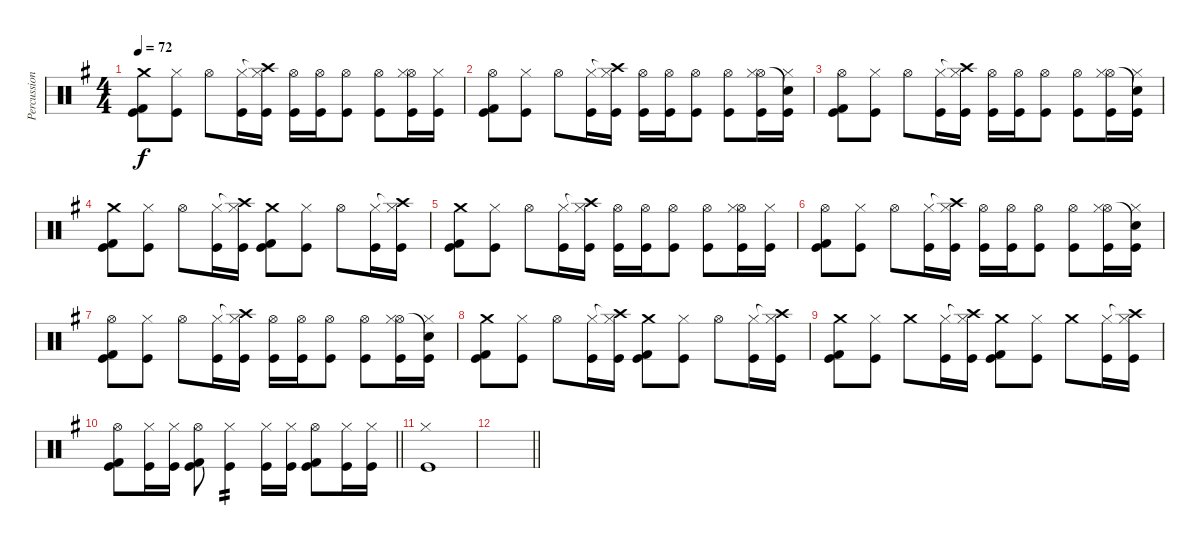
\track ("Percussion" "Percussion") {instrument percussion}
\staff {score}
\articulation defaults
\ts (4 4)
\tempo 72
\clef neutral
\ks g
("Crash medium (hit)" "Kick (hit) 2" "Kick (hit)").8{dy f} ("Hi-Hat (closed)" "Kick (hit)").8 "Hi-Hat (open)".8 ("Hi-Hat (closed)" "Kick (hit)").16 ("Crash high (hit)"{t} "Hi-Hat (closed)" "Kick (hit)").16 ("Hi-Hat (open)" "Kick (hit)").16 ("Hi-Hat (open)" "Kick (hit)").16 ("Hi-Hat (open)" "Kick (hit)").8 ("Hi-Hat (open)" "Kick (hit)").8 ("Hi-Hat (open)" "Hi-Hat (closed)" "Kick (hit)").16 ("Hi-Hat (closed)" "Kick (hit)").16 |
("Hi-Hat (open)" "Kick (hit) 2" "Kick (hit)").8 ("Hi-Hat (closed)" "Kick (hit)").8 "Hi-Hat (open)".8 ("Hi-Hat (closed)" "Kick (hit)").16 ("Crash high (hit)"{t} "Hi-Hat (closed)" "Kick (hit)").16 ("Hi-Hat (open)" "Kick (hit)").16 ("Hi-Hat (open)" "Kick (hit)").16 ("Hi-Hat (open)" "Kick (hit)").8 ("Hi-Hat (open)" "Kick (hit)").8 ("Hi-Hat (open)" "Hi-Hat (closed)" "Kick (hit)").16 ("Snare (hit)"{t} "Hi-Hat (closed)" "Kick (hit)").16 |
("Hi-Hat (open)" "Kick (hit) 2" "Kick (hit)").8 ("Hi-Hat (closed)" "Kick (hit)").8 "Hi-Hat (open)".8 ("Hi-Hat (closed)" "Kick (hit)").16 ("Crash high (hit)"{t} "Hi-Hat (closed)" "Kick (hit)").16 ("Hi-Hat (open)" "Kick (hit)").16 ("Hi-Hat (open)" "Kick (hit)").16 ("Hi-Hat (open)" "Kick (hit)").8 ("Hi-Hat (open)" "Kick (hit)").8 ("Hi-Hat (open)" "Hi-Hat (closed)" "Kick (hit)").16 ("Snare (hit)"{t} "Hi-Hat (closed)" "Kick (hit)").16 |
("Crash medium (hit)" "Kick (hit) 2" "Kick (hit)").8 ("Hi-Hat (closed)" "Kick (hit)").8 "Hi-Hat (open)".8 ("Hi-Hat (closed)" "Kick (hit)").16 ("Crash high (hit)"{t} "Hi-Hat (closed)" "Kick (hit)").16 ("Crash medium (hit)" "Kick (hit) 2" "Kick (hit)").8 ("Hi-Hat (closed)" "Kick (hit)").8 "Hi-Hat (open)".8 ("Hi-Hat (closed)" "Kick (hit)").16 ("Crash high (hit)"{t} "Hi-Hat (closed)" "Kick (hit)").16 |
("Crash medium (hit)" "Kick (hit) 2" "Kick (hit)").8 ("Hi-Hat (closed)" "Kick (hit)").8 "Hi-Hat (open)".8 ("Hi-Hat (closed)" "Kick (hit)").16 ("Crash high (hit)"{t} "Hi-Hat (closed)" "Kick (hit)").16 ("Hi-Hat (open)" "Kick (hit)").16 ("Hi-Hat (open)" "Kick (hit)").16 ("Hi-Hat (open)" "Kick (hit)").8 ("Hi-Hat (open)" "Kick (hit)").8 ("Hi-Hat (open)" "Hi-Hat (closed)" "Kick (hit)").16 ("Hi-Hat (closed)" "Kick (hit)").16 |
("Hi-Hat (open)" "Kick (hit) 2" "Kick (hit)").8 ("Hi-Hat (closed)" "Kick (hit)").8 "Hi-Hat (open)".8 ("Hi-Hat (closed)" "Kick (hit)").16 ("Crash high (hit)"{t} "Hi-Hat (closed)" "Kick (hit)").16 ("Hi-Hat (open)" "Kick (hit)").16 ("Hi-Hat (open)" "Kick (hit)").16 ("Hi-Hat (open)" "Kick (hit)").8 ("Hi-Hat (open)" "Kick (hit)").8 ("Hi-Hat (open)" "Hi-Hat (closed)" "Kick (hit)").16 ("Snare (hit)"{t} "Hi-Hat (closed)" "Kick (hit)").16 |
("Hi-Hat (open)" "Kick (hit) 2" "Kick (hit)").8 ("Hi-Hat (closed)" "Kick (hit)").8 "Hi-Hat (open)".8 ("Hi-Hat (closed)" "Kick (hit)").16 ("Crash high (hit)"{t} "Hi-Hat (closed)" "Kick (hit)").16 ("Hi-Hat (open)" "Kick (hit)").16 ("Hi-Hat (open)" "Kick (hit)").16 ("Hi-Hat (open)" "Kick (hit)").8 ("Hi-Hat (open)" "Kick (hit)").8 ("Hi-Hat (open)" "Hi-Hat (closed)" "Kick (hit)").16 ("Snare (hit)"{t} "Hi-Hat (closed)" "Kick (hit)").16 |
("Crash medium (hit)" "Kick (hit) 2" "Kick (hit)").8 ("Hi-Hat (closed)" "Kick (hit)").8 "Hi-Hat (open)".8 ("Hi-Hat (closed)" "Kick (hit)").16 ("Crash high (hit)"{t} "Hi-Hat (closed)" "Kick (hit)").16 ("Crash medium (hit)" "Kick (hit) 2" "Kick (hit)").8 ("Hi-Hat (closed)" "Kick (hit)").8 "Hi-Hat (open)".8 ("Hi-Hat (closed)" "Kick (hit)").16 ("Crash high (hit)"{t} "Hi-Hat (closed)" "Kick (hit)").16 |
("Crash medium (hit)" "Kick (hit) 2" "Kick (hit)").8 ("Hi-Hat (closed)" "Kick (hit)").8 "Crash medium (hit)".8 ("Hi-Hat (closed)" "Kick (hit)").16 ("Crash high (hit)"{t} "Hi-Hat (closed)" "Kick (hit)").16 ("Crash medium (hit)" "Kick (hit) 2" "Kick (hit)").8 ("Hi-Hat (closed)" "Kick (hit)").8 "Crash medium (hit)".8 ("Hi-Hat (closed)" "Kick (hit)").16 ("Crash high (hit)"{t} "Hi-Hat (closed)" "Kick (hit)").16 |
\barLineRight lightlight
("Hi-Hat (open)" "Kick (hit) 2" "Kick (hit)").8 ("Hi-Hat (closed)" "Kick (hit)").16 ("Hi-Hat (closed)" "Kick (hit)").16 ("Hi-Hat (open)" "Kick (hit) 2" "Kick (hit)").8 ("Hi-Hat (closed)" "Kick (hit)").4{tp 2} ("Hi-Hat (closed)" "Kick (hit)").16 ("Hi-Hat (closed)" "Kick (hit)").16 ("Hi-Hat (open)" "Kick (hit) 2" "Kick (hit)").8 ("Hi-Hat (closed)" "Kick (hit)").16 ("Hi-Hat (closed)" "Kick (hit)").16 |
("Hi-Hat (closed)" "Kick (hit)").1 |
\barLineRight lightlight
